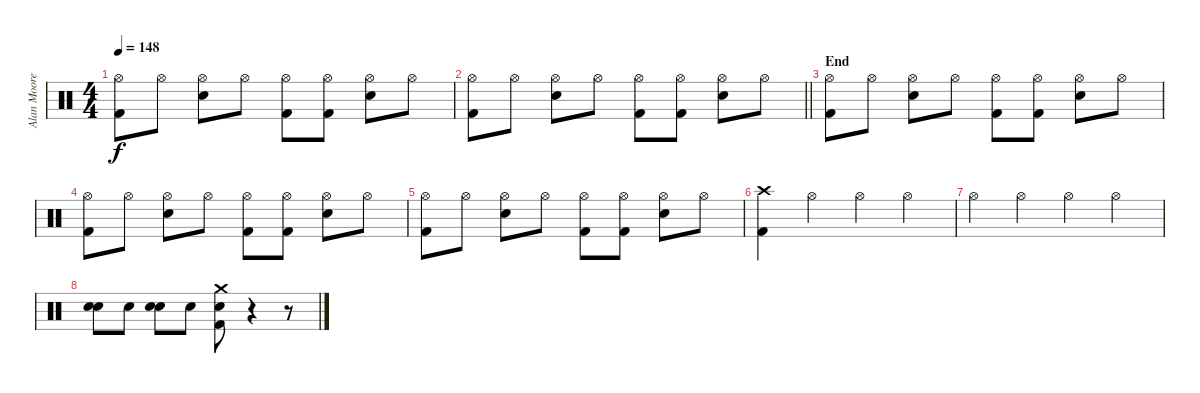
\track ("Alan Moore" "Alan Moore") {instrument percussion}
\staff {score}
\articulation defaults
\ts (4 4)
\tempo 148
\clef neutral
\ks c
("Hi-Hat (open)" "Kick (hit) 2").8{dy f} "Hi-Hat (open)".8 ("Hi-Hat (open)" "Snare (hit) 2").8 "Hi-Hat (open)".8 ("Hi-Hat (open)" "Kick (hit) 2").8 ("Hi-Hat (open)" "Kick (hit) 2").8 ("Hi-Hat (open)" "Snare (hit) 2").8 "Hi-Hat (open)".8 |
\barLineRight lightlight
("Hi-Hat (open)" "Kick (hit) 2").8 "Hi-Hat (open)".8 ("Hi-Hat (open)" "Snare (hit) 2").8 "Hi-Hat (open)".8 ("Hi-Hat (open)" "Kick (hit) 2").8 ("Hi-Hat (open)" "Kick (hit) 2").8 ("Hi-Hat (open)" "Snare (hit) 2").8 "Hi-Hat (open)".8 |
\section ("" "End")
("Hi-Hat (open)" "Kick (hit) 2").8 "Hi-Hat (open)".8 ("Hi-Hat (open)" "Snare (hit) 2").8 "Hi-Hat (open)".8 ("Hi-Hat (open)" "Kick (hit) 2").8 ("Hi-Hat (open)" "Kick (hit) 2").8 ("Hi-Hat (open)" "Snare (hit) 2").8 "Hi-Hat (open)".8 |
("Hi-Hat (open)" "Kick (hit) 2").8 "Hi-Hat (open)".8 ("Hi-Hat (open)" "Snare (hit) 2").8 "Hi-Hat (open)".8 ("Hi-Hat (open)" "Kick (hit) 2").8 ("Hi-Hat (open)" "Kick (hit) 2").8 ("Hi-Hat (open)" "Snare (hit) 2").8 "Hi-Hat (open)".8 |
("Hi-Hat (open)" "Kick (hit) 2").8 "Hi-Hat (open)".8 ("Hi-Hat (open)" "Snare (hit) 2").8 "Hi-Hat (open)".8 ("Hi-Hat (open)" "Kick (hit) 2").8 ("Hi-Hat (open)" "Kick (hit) 2").8 ("Hi-Hat (open)" "Snare (hit) 2").8 "Hi-Hat (open)".8 |
("Kick (hit) 2" "Crash high (hit)").4 "Hi-Hat (open)".4 "Hi-Hat (open)".4 "Hi-Hat (open)".4 |
"Hi-Hat (open)".4 "Hi-Hat (open)".4 "Hi-Hat (open)".4 "Hi-Hat (open)".4 |
("Snare (hit) 2" "Snare (hit) 2").8 "Snare (hit) 2".8 ("Snare (hit) 2" "Snare (hit) 2").8 "Snare (hit) 2".8 ("Crash medium (hit)" "Kick (hit) 2" "Snare (hit) 2").8 r.4 r.8
